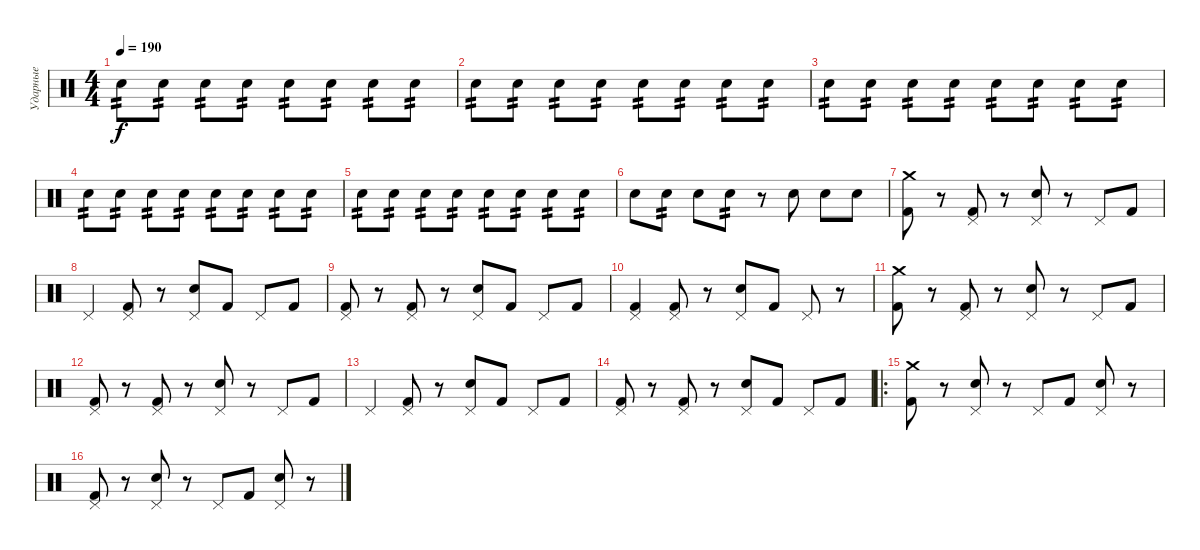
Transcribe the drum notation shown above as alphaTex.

\track ("Ударные" "Ударные") {instrument percussion}
\staff {score}
\articulation defaults
\ts (4 4)
\tempo 190
\clef neutral
\ks c "Electric Snare (hit)".8{tp 2 dy f} "Electric Snare (hit)".8{tp 2} "Electric Snare (hit)".8{tp 2} "Electric Snare (hit)".8{tp 2} "Electric Snare (hit)".8{tp 2} "Electric Snare (hit)".8{tp 2} "Electric Snare (hit)".8{tp 2} "Electric Snare (hit)".8{tp 2}
|
"Electric Snare (hit)".8{tp 2} "Electric Snare (hit)".8{tp 2} "Electric Snare (hit)".8{tp 2} "Electric Snare (hit)".8{tp 2} "Electric Snare (hit)".8{tp 2} "Electric Snare (hit)".8{tp 2} "Electric Snare (hit)".8{tp 2} "Electric Snare (hit)".8{tp 2} |
"Electric Snare (hit)".8{tp 2} "Electric Snare (hit)".8{tp 2} "Electric Snare (hit)".8{tp 2} "Electric Snare (hit)".8{tp 2} "Electric Snare (hit)".8{tp 2} "Electric Snare (hit)".8{tp 2} "Electric Snare (hit)".8{tp 2} "Electric Snare (hit)".8{tp 2} |
"Electric Snare (hit)".8{tp 2} "Electric Snare (hit)".8{tp 2} "Electric Snare (hit)".8{tp 2} "Electric Snare (hit)".8{tp 2} "Electric Snare (hit)".8{tp 2} "Electric Snare (hit)".8{tp 2} "Electric Snare (hit)".8{tp 2} "Electric Snare (hit)".8{tp 2} |
"Electric Snare (hit)".8{tp 2} "Electric Snare (hit)".8{tp 2} "Electric Snare (hit)".8{tp 2} "Electric Snare (hit)".8{tp 2} "Electric Snare (hit)".8{tp 2} "Electric Snare (hit)".8{tp 2} "Electric Snare (hit)".8{tp 2} "Electric Snare (hit)".8{tp 2} |
"Electric Snare (hit)".8 "Electric Snare (hit)".8{tp 2} "Electric Snare (hit)".8 "Electric Snare (hit)".8{tp 2} r.8 "Electric Snare (hit)".8 "Electric Snare (hit)".8 "Electric Snare (hit)".8 |
("Crash medium (hit)" "Kick (hit) 2").8 r.8 ("Pedal Hi-Hat (hit)" "Kick (hit) 2").8 r.8 ("Pedal Hi-Hat (hit)" "Electric Snare (hit)").8 r.8 "Pedal Hi-Hat (hit)".8 "Kick (hit) 2".8 |
"Pedal Hi-Hat (hit)".4 ("Pedal Hi-Hat (hit)" "Kick (hit) 2").8 r.8 ("Pedal Hi-Hat (hit)" "Electric Snare (hit)").8 "Kick (hit) 2".8 "Pedal Hi-Hat (hit)".8 "Kick (hit) 2".8 |
("Pedal Hi-Hat (hit)" "Kick (hit) 2").8 r.8 ("Pedal Hi-Hat (hit)" "Kick (hit) 2").8 r.8 ("Pedal Hi-Hat (hit)" "Electric Snare (hit)").8 "Kick (hit) 2".8 "Pedal Hi-Hat (hit)".8 "Kick (hit) 2".8 |
("Pedal Hi-Hat (hit)" "Kick (hit) 2").4 ("Pedal Hi-Hat (hit)" "Kick (hit) 2").8 r.8 ("Pedal Hi-Hat (hit)" "Electric Snare (hit)").8 "Kick (hit) 2".8 "Pedal Hi-Hat (hit)".8 r.8 |
("Crash medium (hit)" "Kick (hit) 2").8 r.8 ("Pedal Hi-Hat (hit)" "Kick (hit) 2").8 r.8 ("Pedal Hi-Hat (hit)" "Electric Snare (hit)").8 r.8 "Pedal Hi-Hat (hit)".8 "Kick (hit) 2".8 |
("Pedal Hi-Hat (hit)" "Kick (hit) 2").8 r.8 ("Pedal Hi-Hat (hit)" "Kick (hit) 2").8 r.8 ("Pedal Hi-Hat (hit)" "Electric Snare (hit)").8 r.8 "Pedal Hi-Hat (hit)".8 "Kick (hit) 2".8 |
"Pedal Hi-Hat (hit)".4 ("Pedal Hi-Hat (hit)" "Kick (hit) 2").8 r.8 ("Pedal Hi-Hat (hit)" "Electric Snare (hit)").8 "Kick (hit) 2".8 "Pedal Hi-Hat (hit)".8 "Kick (hit) 2".8 |
("Pedal Hi-Hat (hit)" "Kick (hit) 2").8 r.8 ("Pedal Hi-Hat (hit)" "Kick (hit) 2").8 r.8 ("Pedal Hi-Hat (hit)" "Electric Snare (hit)").8 "Kick (hit) 2".8 "Pedal Hi-Hat (hit)".8 "Kick (hit) 2".8 |
\ro
("Crash medium (hit)" "Kick (hit) 2").8 r.8 ("Pedal Hi-Hat (hit)" "Electric Snare (hit)").8 r.8 "Pedal Hi-Hat (hit)".8 "Kick (hit) 2".8 ("Pedal Hi-Hat (hit)" "Electric Snare (hit)").8 r.8 |
("Pedal Hi-Hat (hit)" "Kick (hit) 2").8 r.8 ("Pedal Hi-Hat (hit)" "Electric Snare (hit)").8 r.8 "Pedal Hi-Hat (hit)".8 "Kick (hit) 2".8 ("Pedal Hi-Hat (hit)" "Electric Snare (hit)").8 r.8
